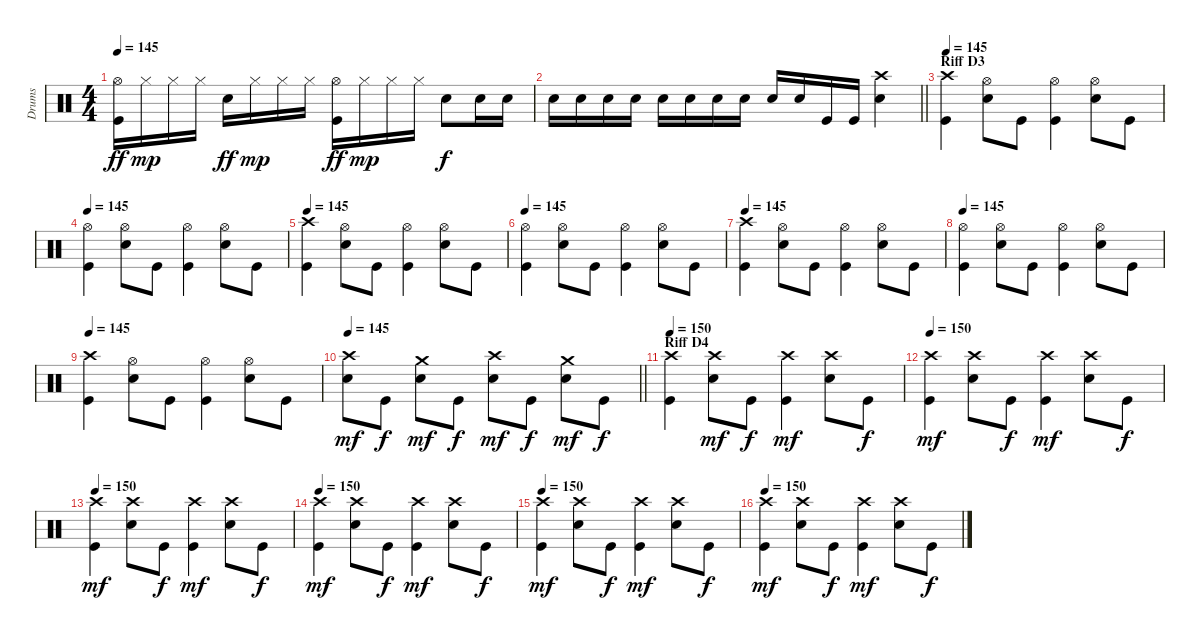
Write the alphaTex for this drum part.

\track ("Drums" "Drums") {instrument percussion}
\staff {score}
\articulation defaults
\ts (4 4)
\tempo 145
\clef neutral
\ks c
("Hi-Hat (open)" "Kick (hit)").16{dy ff} "Hi-Hat (closed)".16{dy mp} "Hi-Hat (closed)".16 "Hi-Hat (closed)".16 "Snare (hit) 2".16{dy ff} "Hi-Hat (closed)".16{dy mp} "Hi-Hat (closed)".16 "Hi-Hat (closed)".16 ("Hi-Hat (open)" "Kick (hit)").16{dy ff} "Hi-Hat (closed)".16{dy mp} "Hi-Hat (closed)".16 "Hi-Hat (closed)".16 "Snare (hit) 2".8{dy f} "Snare (hit) 2".16 "Snare (hit) 2".16 |
\barLineRight lightlight "Snare (hit) 2".16 "Snare (hit) 2".16 "Snare (hit) 2".16 "Snare (hit) 2".16 "Snare (hit) 2".16 "Snare (hit) 2".16 "Snare (hit) 2".16 "Snare (hit) 2".16 "Snare (hit) 2".16 "Snare (hit) 2".16 "Kick (hit)".16 "Kick (hit)".16
("Crash high (hit)" "Snare (hit) 2").4 |
\section ("" "Riff D3")
\tempo 145
("Crash high (hit)" "Kick (hit)").4 ("Hi-Hat (open)" "Snare (hit) 2").8 "Kick (hit)".8 ("Hi-Hat (open)" "Kick (hit)").4 ("Hi-Hat (open)" "Snare (hit) 2").8 "Kick (hit)".8 |
\tempo 145
("Hi-Hat (open)" "Kick (hit)").4 ("Hi-Hat (open)" "Snare (hit) 2").8 "Kick (hit)".8 ("Hi-Hat (open)" "Kick (hit)").4 ("Hi-Hat (open)" "Snare (hit) 2").8 "Kick (hit)".8 |
\tempo 145
("Crash high (hit)" "Kick (hit)").4 ("Hi-Hat (open)" "Snare (hit) 2").8 "Kick (hit)".8 ("Hi-Hat (open)" "Kick (hit)").4 ("Hi-Hat (open)" "Snare (hit) 2").8 "Kick (hit)".8 |
\tempo 145
("Hi-Hat (open)" "Kick (hit)").4 ("Hi-Hat (open)" "Snare (hit) 2").8 "Kick (hit)".8 ("Hi-Hat (open)" "Kick (hit)").4 ("Hi-Hat (open)" "Snare (hit) 2").8 "Kick (hit)".8 |
\tempo 145
("Crash high (hit)" "Kick (hit)").4 ("Hi-Hat (open)" "Snare (hit) 2").8 "Kick (hit)".8 ("Hi-Hat (open)" "Kick (hit)").4 ("Hi-Hat (open)" "Snare (hit) 2").8 "Kick (hit)".8 |
\tempo 145
("Hi-Hat (open)" "Kick (hit)").4 ("Hi-Hat (open)" "Snare (hit) 2").8 "Kick (hit)".8 ("Hi-Hat (open)" "Kick (hit)").4 ("Hi-Hat (open)" "Snare (hit) 2").8 "Kick (hit)".8 |
\tempo 145
("Crash high (hit)" "Kick (hit)").4 ("Hi-Hat (open)" "Snare (hit) 2").8 "Kick (hit)".8 ("Hi-Hat (open)" "Kick (hit)").4 ("Hi-Hat (open)" "Snare (hit) 2").8 "Kick (hit)".8 |
\tempo 145
\barLineRight lightlight
("Crash high (hit)" "Snare (hit) 2").8{dy mf} "Kick (hit)".8{dy f} ("Crash medium (hit)" "Snare (hit) 2").8{dy mf} "Kick (hit)".8{dy f} ("Crash high (hit)" "Snare (hit) 2").8{dy mf} "Kick (hit)".8{dy f} ("Crash medium (hit)" "Snare (hit) 2").8{dy mf} "Kick (hit)".8{dy f} |
\section ("" "Riff D4")
\tempo 150
("Crash high (hit)" "Kick (hit)").4 ("Crash high (hit)" "Snare (hit) 2").8{dy mf} "Kick (hit)".8{dy f} ("Crash high (hit)" "Kick (hit)").4{dy mf} ("Crash high (hit)" "Snare (hit) 2").8 "Kick (hit)".8{dy f} |
\tempo 150
("Crash high (hit)" "Kick (hit)").4{dy mf} ("Crash high (hit)" "Snare (hit) 2").8 "Kick (hit)".8{dy f} ("Crash high (hit)" "Kick (hit)").4{dy mf} ("Crash high (hit)" "Snare (hit) 2").8 "Kick (hit)".8{dy f} |
\tempo 150
("Crash high (hit)" "Kick (hit)").4{dy mf} ("Crash high (hit)" "Snare (hit) 2").8 "Kick (hit)".8{dy f} ("Crash high (hit)" "Kick (hit)").4{dy mf} ("Crash high (hit)" "Snare (hit) 2").8 "Kick (hit)".8{dy f} |
\tempo 150
("Crash high (hit)" "Kick (hit)").4{dy mf} ("Crash high (hit)" "Snare (hit) 2").8 "Kick (hit)".8{dy f} ("Crash high (hit)" "Kick (hit)").4{dy mf} ("Crash high (hit)" "Snare (hit) 2").8 "Kick (hit)".8{dy f} |
\tempo 150
("Crash high (hit)" "Kick (hit)").4{dy mf} ("Crash high (hit)" "Snare (hit) 2").8 "Kick (hit)".8{dy f} ("Crash high (hit)" "Kick (hit)").4{dy mf} ("Crash high (hit)" "Snare (hit) 2").8 "Kick (hit)".8{dy f} |
\tempo 150
("Crash high (hit)" "Kick (hit)").4{dy mf} ("Crash high (hit)" "Snare (hit) 2").8 "Kick (hit)".8{dy f} ("Crash high (hit)" "Kick (hit)").4{dy mf} ("Crash high (hit)" "Snare (hit) 2").8 "Kick (hit)".8{dy f}
